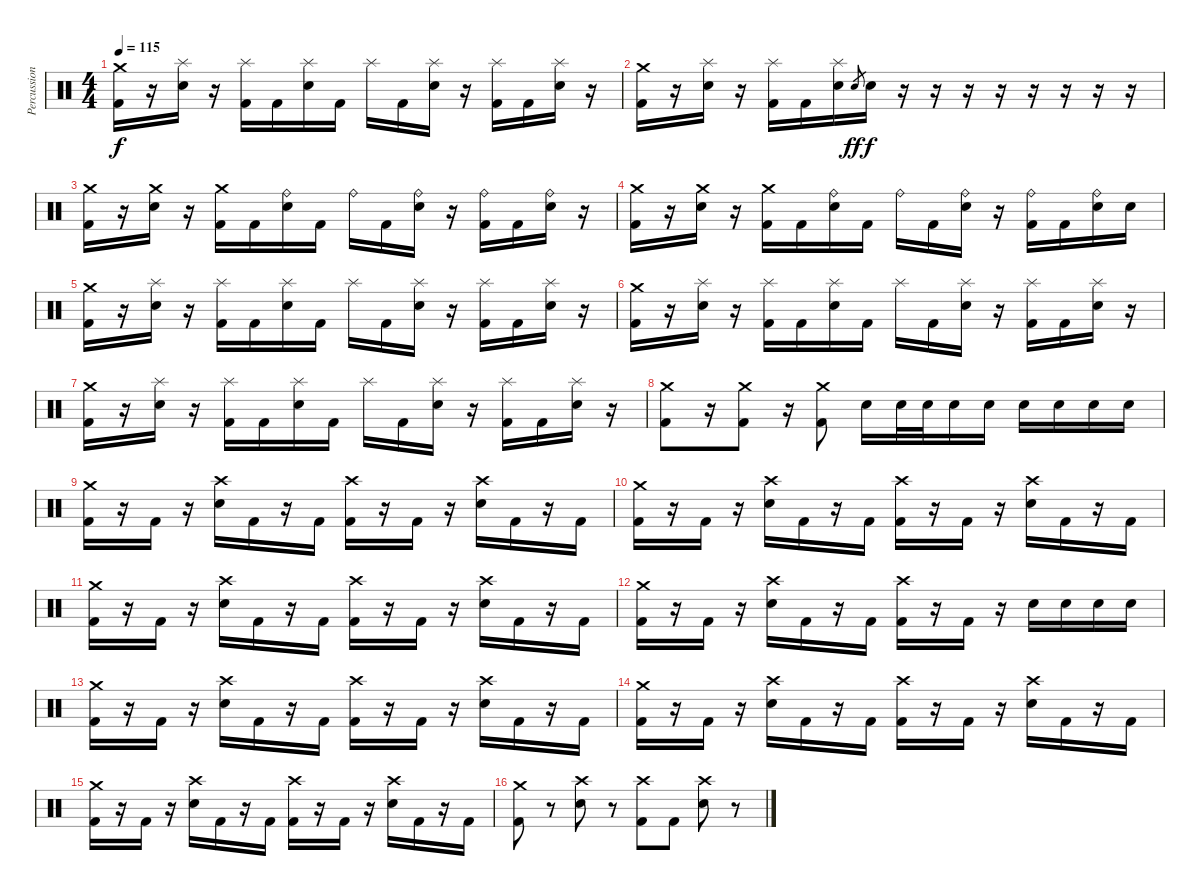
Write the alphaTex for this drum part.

\track ("Percussioni" "Percussion") {instrument percussion}
\staff {score}
\articulation defaults
\ts (4 4)
\tempo 115
\clef neutral
\ks c
("Crash medium (hit)" "Kick (hit) 2").16{dy f} r.16 ("Splash (hit)" "Electric Snare (hit)").16 r.16 ("Splash (hit)" "Kick (hit) 2").16 "Kick (hit) 2".16 ("Splash (hit)" "Electric Snare (hit)").16 "Kick (hit) 2".16 "Splash (hit)".16 "Kick (hit) 2".16 ("Splash (hit)" "Electric Snare (hit)").16 r.16 ("Splash (hit)" "Kick (hit) 2").16 "Kick (hit) 2".16 ("Splash (hit)" "Electric Snare (hit)").16 r.16 |
("Crash medium (hit)" "Kick (hit) 2").16 r.16 ("Splash (hit)" "Electric Snare (hit)").16 r.16 ("Splash (hit)" "Kick (hit) 2").16 "Kick (hit) 2".16 ("Splash (hit)" "Electric Snare (hit)").16 "Electric Snare (hit)".8{gr dy ff} "Electric Snare (hit)".16{dy f} r.16 r.16 r.16 r.16 r.16 r.16 r.16 r.16 |
("Crash medium (hit)" "Kick (hit) 2").16 r.16 ("Crash medium (hit)" "Electric Snare (hit)").16 r.16 ("Crash medium (hit)" "Kick (hit) 2").16 "Kick (hit) 2".16 ("Ride (bell)" "Electric Snare (hit)").16 "Kick (hit) 2".16 "Ride (bell)".16 "Kick (hit) 2".16 ("Ride (bell)" "Electric Snare (hit)").16 r.16 ("Ride (bell)" "Kick (hit) 2").16 "Kick (hit) 2".16 ("Ride (bell)" "Electric Snare (hit)").16 r.16 |
("Crash medium (hit)" "Kick (hit) 2").16 r.16 ("Crash medium (hit)" "Electric Snare (hit)").16 r.16 ("Crash medium (hit)" "Kick (hit) 2").16 "Kick (hit) 2".16 ("Ride (bell)" "Electric Snare (hit)").16 "Kick (hit) 2".16 "Ride (bell)".16 "Kick (hit) 2".16 ("Ride (bell)" "Electric Snare (hit)").16 r.16 ("Ride (bell)" "Kick (hit) 2").16 "Kick (hit) 2".16 ("Ride (bell)" "Electric Snare (hit)").16 "Electric Snare (hit)".16 |
("Crash medium (hit)" "Kick (hit) 2").16 r.16 ("Splash (hit)" "Electric Snare (hit)").16 r.16 ("Splash (hit)" "Kick (hit) 2").16 "Kick (hit) 2".16 ("Splash (hit)" "Electric Snare (hit)").16 "Kick (hit) 2".16 "Splash (hit)".16 "Kick (hit) 2".16 ("Splash (hit)" "Electric Snare (hit)").16 r.16 ("Splash (hit)" "Kick (hit) 2").16 "Kick (hit) 2".16 ("Splash (hit)" "Electric Snare (hit)").16 r.16 |
("Crash medium (hit)" "Kick (hit) 2").16 r.16 ("Splash (hit)" "Electric Snare (hit)").16 r.16 ("Splash (hit)" "Kick (hit) 2").16 "Kick (hit) 2".16 ("Splash (hit)" "Electric Snare (hit)").16 "Kick (hit) 2".16 "Splash (hit)".16 "Kick (hit) 2".16 ("Splash (hit)" "Electric Snare (hit)").16 r.16 ("Splash (hit)" "Kick (hit) 2").16 "Kick (hit) 2".16 ("Splash (hit)" "Electric Snare (hit)").16 r.16 |
("Crash medium (hit)" "Kick (hit) 2").16 r.16 ("Splash (hit)" "Electric Snare (hit)").16 r.16 ("Splash (hit)" "Kick (hit) 2").16 "Kick (hit) 2".16 ("Splash (hit)" "Electric Snare (hit)").16 "Kick (hit) 2".16 "Splash (hit)".16 "Kick (hit) 2".16 ("Splash (hit)" "Electric Snare (hit)").16 r.16 ("Splash (hit)" "Kick (hit) 2").16 "Kick (hit) 2".16 ("Splash (hit)" "Electric Snare (hit)").16 r.16 |
("Crash medium (hit)" "Kick (hit) 2").8 r.16 ("Crash medium (hit)" "Kick (hit) 2").8 r.16 ("Crash medium (hit)" "Kick (hit) 2").8 "Electric Snare (hit)".16 "Electric Snare (hit)".32 "Electric Snare (hit)".32 "Electric Snare (hit)".16 "Electric Snare (hit)".16 "Electric Snare (hit)".16 "Electric Snare (hit)".16 "Electric Snare (hit)".16 "Electric Snare (hit)".16 |
("Crash medium (hit)" "Kick (hit) 2").16 r.16 "Kick (hit) 2".16 r.16 ("Crash high (hit)" "Electric Snare (hit)").16 "Kick (hit) 2".16 r.16 "Kick (hit) 2".16 ("Crash high (hit)" "Kick (hit) 2").16 r.16 "Kick (hit) 2".16 r.16 ("Crash high (hit)" "Electric Snare (hit)").16 "Kick (hit) 2".16 r.16 "Kick (hit) 2".16 |
("Crash medium (hit)" "Kick (hit) 2").16 r.16 "Kick (hit) 2".16 r.16 ("Crash high (hit)" "Electric Snare (hit)").16 "Kick (hit) 2".16 r.16 "Kick (hit) 2".16 ("Crash high (hit)" "Kick (hit) 2").16 r.16 "Kick (hit) 2".16 r.16 ("Crash high (hit)" "Electric Snare (hit)").16 "Kick (hit) 2".16 r.16 "Kick (hit) 2".16 |
("Crash medium (hit)" "Kick (hit) 2").16 r.16 "Kick (hit) 2".16 r.16 ("Crash high (hit)" "Electric Snare (hit)").16 "Kick (hit) 2".16 r.16 "Kick (hit) 2".16 ("Crash high (hit)" "Kick (hit) 2").16 r.16 "Kick (hit) 2".16 r.16 ("Crash high (hit)" "Electric Snare (hit)").16 "Kick (hit) 2".16 r.16 "Kick (hit) 2".16 |
("Crash medium (hit)" "Kick (hit) 2").16 r.16 "Kick (hit) 2".16 r.16 ("Crash high (hit)" "Electric Snare (hit)").16 "Kick (hit) 2".16 r.16 "Kick (hit) 2".16 ("Crash high (hit)" "Kick (hit) 2").16 r.16 "Kick (hit) 2".16 r.16 "Electric Snare (hit)".16 "Electric Snare (hit)".16 "Electric Snare (hit)".16 "Electric Snare (hit)".16 |
("Crash medium (hit)" "Kick (hit) 2").16 r.16 "Kick (hit) 2".16 r.16 ("Crash high (hit)" "Electric Snare (hit)").16 "Kick (hit) 2".16 r.16 "Kick (hit) 2".16 ("Crash high (hit)" "Kick (hit) 2").16 r.16 "Kick (hit) 2".16 r.16 ("Crash high (hit)" "Electric Snare (hit)").16 "Kick (hit) 2".16 r.16 "Kick (hit) 2".16 |
("Crash medium (hit)" "Kick (hit) 2").16 r.16 "Kick (hit) 2".16 r.16 ("Crash high (hit)" "Electric Snare (hit)").16 "Kick (hit) 2".16 r.16 "Kick (hit) 2".16 ("Crash high (hit)" "Kick (hit) 2").16 r.16 "Kick (hit) 2".16 r.16 ("Crash high (hit)" "Electric Snare (hit)").16 "Kick (hit) 2".16 r.16 "Kick (hit) 2".16 |
("Crash medium (hit)" "Kick (hit) 2").16 r.16 "Kick (hit) 2".16 r.16 ("Crash high (hit)" "Electric Snare (hit)").16 "Kick (hit) 2".16 r.16 "Kick (hit) 2".16 ("Crash high (hit)" "Kick (hit) 2").16 r.16 "Kick (hit) 2".16 r.16 ("Crash high (hit)" "Electric Snare (hit)").16 "Kick (hit) 2".16 r.16 "Kick (hit) 2".16 |
("Crash medium (hit)" "Kick (hit) 2").8 r.8 ("Crash high (hit)" "Electric Snare (hit)").8 r.8 ("Crash high (hit)" "Kick (hit) 2").8 "Kick (hit) 2".8 ("Crash high (hit)" "Electric Snare (hit)").8 r.8
